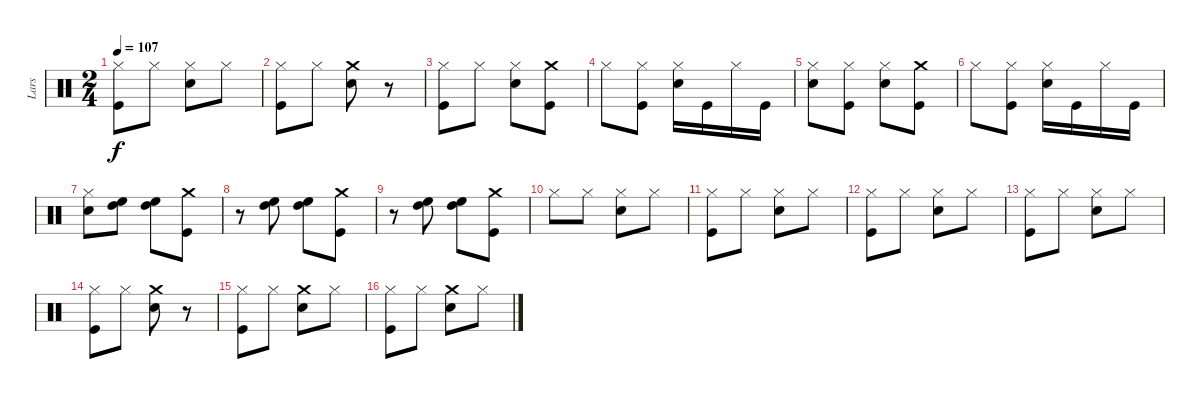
\track ("Lars" "Lars") {instrument percussion}
\staff {score}
\articulation defaults
\ts (2 4)
\tempo 107
\clef neutral
\ks c
("Kick (hit)" "Hi-Hat (closed)").8{dy f} "Hi-Hat (closed)".8 ("Hi-Hat (closed)" "Snare (hit) 2").8 "Hi-Hat (closed)".8 |
("Hi-Hat (closed)" "Kick (hit)").8 "Hi-Hat (closed)".8 ("Crash medium (hit)" "Snare (hit) 2").8 r.8 |
("Kick (hit)" "Hi-Hat (closed)").8 "Hi-Hat (closed)".8 ("Snare (hit) 2" "Hi-Hat (closed)").8 ("Crash medium (hit)" "Kick (hit)").8 |
"Hi-Hat (closed)".8 ("Kick (hit)" "Hi-Hat (closed)").8 ("Hi-Hat (closed)" "Snare (hit) 2").16 "Kick (hit)".16 "Hi-Hat (closed)".16 "Kick (hit)".16 |
("Hi-Hat (closed)" "Snare (hit) 2").8 ("Hi-Hat (closed)" "Kick (hit)").8 ("Hi-Hat (closed)" "Snare (hit) 2").8 ("Crash medium (hit)" "Kick (hit)").8 |
"Hi-Hat (closed)".8 ("Kick (hit)" "Hi-Hat (closed)").8 ("Hi-Hat (closed)" "Snare (hit) 2").16 "Kick (hit)".16 "Hi-Hat (closed)".16 "Kick (hit)".16 |
("Snare (hit) 2" "Hi-Hat (closed)").8 ("High Tom (hit)" "High Floor Tom (hit)").8 ("High Tom (hit)" "High Floor Tom (hit)").8 ("Crash medium (hit)" "Kick (hit)").8 |
r.8 ("High Tom (hit)" "High Floor Tom (hit)").8 ("High Tom (hit)" "High Floor Tom (hit)").8 ("Crash medium (hit)" "Kick (hit)").8 |
r.8 ("High Tom (hit)" "High Floor Tom (hit)").8 ("High Tom (hit)" "High Floor Tom (hit)").8 ("Crash medium (hit)" "Kick (hit)").8 |
"Hi-Hat (closed)".8 "Hi-Hat (closed)".8 ("Snare (hit) 2" "Hi-Hat (closed)").8 "Hi-Hat (closed)".8 |
("Hi-Hat (closed)" "Kick (hit)").8 "Hi-Hat (closed)".8 ("Snare (hit) 2" "Hi-Hat (closed)").8 "Hi-Hat (closed)".8 |
("Hi-Hat (closed)" "Kick (hit)").8 "Hi-Hat (closed)".8 ("Snare (hit) 2" "Hi-Hat (closed)").8 "Hi-Hat (closed)".8 |
("Kick (hit)" "Hi-Hat (closed)").8 "Hi-Hat (closed)".8 ("Snare (hit) 2" "Hi-Hat (closed)").8 "Hi-Hat (closed)".8 |
("Hi-Hat (closed)" "Kick (hit)").8 "Hi-Hat (closed)".8 ("Crash medium (hit)" "Snare (hit) 2").8 r.8 |
("Hi-Hat (closed)" "Kick (hit)").8 "Hi-Hat (closed)".8 ("Crash medium (hit)" "Snare (hit) 2").8 "Hi-Hat (closed)".8 |
("Hi-Hat (closed)" "Kick (hit)").8 "Hi-Hat (closed)".8 ("Crash medium (hit)" "Snare (hit) 2").8 "Hi-Hat (closed)".8
